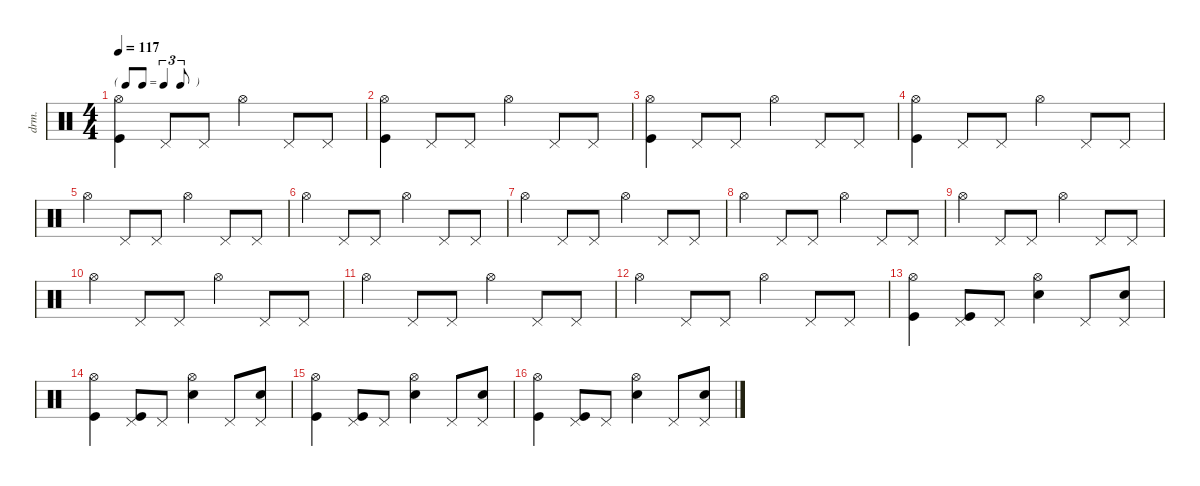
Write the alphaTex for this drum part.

\defaultSystemsLayout 4
\hideDynamics
\bracketExtendMode nobrackets
\otherSystemsTrackNameOrientation horizontal
\track ("Percussions" "drm.") {instrument percussion}
\staff {score}
\articulation defaults
\ts (4 4)
\tf triplet8th
\tempo 117
\clef neutral
\ks c
("Hi-Hat (open)" "Kick (hit)").4{dy f} "Pedal Hi-Hat (hit)".8 "Pedal Hi-Hat (hit)".8 "Hi-Hat (open)".4 "Pedal Hi-Hat (hit)".8 "Pedal Hi-Hat (hit)".8 |
("Hi-Hat (open)" "Kick (hit)").4 "Pedal Hi-Hat (hit)".8 "Pedal Hi-Hat (hit)".8 "Hi-Hat (open)".4 "Pedal Hi-Hat (hit)".8 "Pedal Hi-Hat (hit)".8 |
("Hi-Hat (open)" "Kick (hit)").4 "Pedal Hi-Hat (hit)".8 "Pedal Hi-Hat (hit)".8 "Hi-Hat (open)".4 "Pedal Hi-Hat (hit)".8 "Pedal Hi-Hat (hit)".8 |
("Hi-Hat (open)" "Kick (hit)").4 "Pedal Hi-Hat (hit)".8 "Pedal Hi-Hat (hit)".8 "Hi-Hat (open)".4 "Pedal Hi-Hat (hit)".8 "Pedal Hi-Hat (hit)".8 |
"Hi-Hat (open)".4 "Pedal Hi-Hat (hit)".8 "Pedal Hi-Hat (hit)".8 "Hi-Hat (open)".4 "Pedal Hi-Hat (hit)".8 "Pedal Hi-Hat (hit)".8 |
"Hi-Hat (open)".4 "Pedal Hi-Hat (hit)".8 "Pedal Hi-Hat (hit)".8 "Hi-Hat (open)".4 "Pedal Hi-Hat (hit)".8 "Pedal Hi-Hat (hit)".8 |
"Hi-Hat (open)".4 "Pedal Hi-Hat (hit)".8 "Pedal Hi-Hat (hit)".8 "Hi-Hat (open)".4 "Pedal Hi-Hat (hit)".8 "Pedal Hi-Hat (hit)".8 |
"Hi-Hat (open)".4 "Pedal Hi-Hat (hit)".8 "Pedal Hi-Hat (hit)".8 "Hi-Hat (open)".4 "Pedal Hi-Hat (hit)".8 "Pedal Hi-Hat (hit)".8 |
"Hi-Hat (open)".4 "Pedal Hi-Hat (hit)".8 "Pedal Hi-Hat (hit)".8 "Hi-Hat (open)".4 "Pedal Hi-Hat (hit)".8 "Pedal Hi-Hat (hit)".8 |
"Hi-Hat (open)".4 "Pedal Hi-Hat (hit)".8 "Pedal Hi-Hat (hit)".8 "Hi-Hat (open)".4 "Pedal Hi-Hat (hit)".8 "Pedal Hi-Hat (hit)".8 |
"Hi-Hat (open)".4 "Pedal Hi-Hat (hit)".8 "Pedal Hi-Hat (hit)".8 "Hi-Hat (open)".4 "Pedal Hi-Hat (hit)".8 "Pedal Hi-Hat (hit)".8 |
"Hi-Hat (open)".4 "Pedal Hi-Hat (hit)".8 "Pedal Hi-Hat (hit)".8 "Hi-Hat (open)".4 "Pedal Hi-Hat (hit)".8 "Pedal Hi-Hat (hit)".8 |
("Hi-Hat (open)" "Kick (hit)").4 ("Pedal Hi-Hat (hit)" "Kick (hit)").8 "Pedal Hi-Hat (hit)".8 ("Hi-Hat (open)" "Snare (hit) 2").4 "Pedal Hi-Hat (hit)".8 ("Pedal Hi-Hat (hit)" "Snare (hit) 2").8 |
("Hi-Hat (open)" "Kick (hit)").4 ("Pedal Hi-Hat (hit)" "Kick (hit)").8 "Pedal Hi-Hat (hit)".8 ("Hi-Hat (open)" "Snare (hit) 2").4 "Pedal Hi-Hat (hit)".8 ("Pedal Hi-Hat (hit)" "Snare (hit) 2").8 |
("Hi-Hat (open)" "Kick (hit)").4 ("Pedal Hi-Hat (hit)" "Kick (hit)").8 "Pedal Hi-Hat (hit)".8 ("Hi-Hat (open)" "Snare (hit) 2").4 "Pedal Hi-Hat (hit)".8 ("Pedal Hi-Hat (hit)" "Snare (hit) 2").8 |
("Hi-Hat (open)" "Kick (hit)").4 ("Pedal Hi-Hat (hit)" "Kick (hit)").8 "Pedal Hi-Hat (hit)".8 ("Hi-Hat (open)" "Snare (hit) 2").4 "Pedal Hi-Hat (hit)".8 ("Pedal Hi-Hat (hit)" "Snare (hit) 2").8
